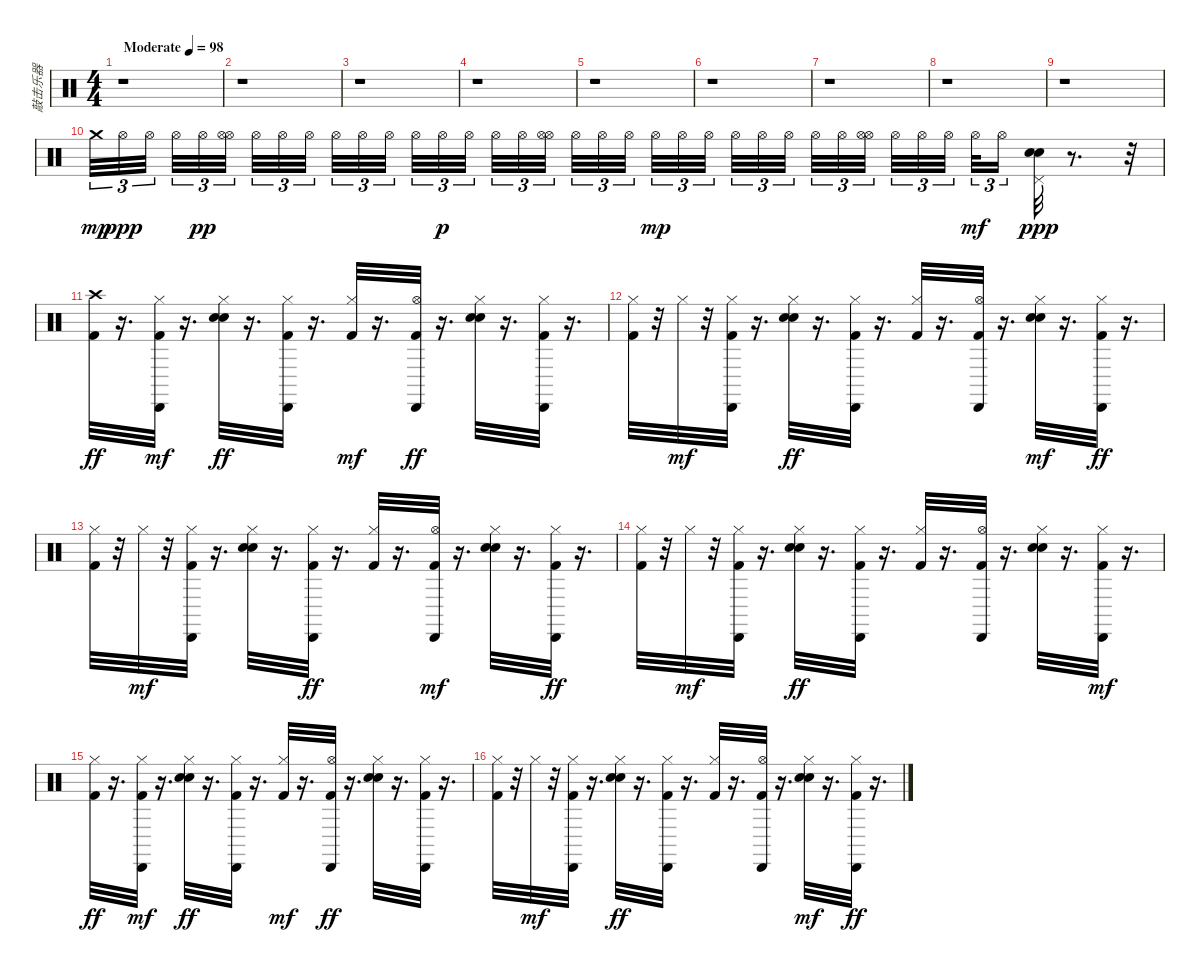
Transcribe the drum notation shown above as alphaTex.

\track ("敲击乐器" "敲击乐器") {instrument percussion}
\staff {score}
\articulation defaults
\ts (4 4)
\tempo (98 "Moderate")
\clef neutral
\ks c
r.1{dy mp} |
r.1 |
r.1 |
r.1 |
r.1 |
r.1 |
r.1 |
r.1 |
r.1 |
"Crash medium (hit)".32{tu (3 2)} "Hi-Hat (open)".32{tu (3 2) dy ppp} "Hi-Hat (open)".32{tu (3 2) beam splitsecondary} "Hi-Hat (open)".32{tu (3 2)} "Hi-Hat (open)".32{tu (3 2) dy pp} ("Hi-Hat (open)" "Hi-Hat (open)").32{tu (3 2) beam splitsecondary} "Hi-Hat (open)".32{tu (3 2)} "Hi-Hat (open)".32{tu (3 2)} "Hi-Hat (open)".32{tu (3 2) beam splitsecondary} "Hi-Hat (open)".32{tu (3 2)} "Hi-Hat (open)".32{tu (3 2)} "Hi-Hat (open)".32{tu (3 2)} "Hi-Hat (open)".32{tu (3 2)} "Hi-Hat (open)".32{tu (3 2) dy p} "Hi-Hat (open)".32{tu (3 2) beam splitsecondary} "Hi-Hat (open)".32{tu (3 2)} "Hi-Hat (open)".32{tu (3 2)} ("Hi-Hat (open)" "Hi-Hat (open)").32{tu (3 2) beam splitsecondary} "Hi-Hat (open)".32{tu (3 2)} "Hi-Hat (open)".32{tu (3 2)} "Hi-Hat (open)".32{tu (3 2) beam splitsecondary} "Hi-Hat (open)".32{tu (3 2) dy mp} "Hi-Hat (open)".32{tu (3 2)} "Hi-Hat (open)".32{tu (3 2)} "Hi-Hat (open)".32{tu (3 2)} "Hi-Hat (open)".32{tu (3 2)} "Hi-Hat (open)".32{tu (3 2) beam splitsecondary} "Hi-Hat (open)".32{tu (3 2)} "Hi-Hat (open)".32{tu (3 2)} ("Hi-Hat (open)" "Hi-Hat (open)").32{tu (3 2) beam splitsecondary} "Hi-Hat (open)".32{tu (3 2)} "Hi-Hat (open)".32{tu (3 2)} "Hi-Hat (open)".32{tu (3 2) beam splitsecondary} "Hi-Hat (open)".32{tu (3 2) dy mf} "Hi-Hat (open)".16{tu (3 2)} ("Snare (hit) 2" "Pedal Hi-Hat (hit)" "Hand Clap (hit)").32{dy ppp} r.8{d} r.32 |
("Crash high (hit)" "Kick (hit) 2").32{dy ff} r.16{d} ("Cabasa (hit)" "Hi-Hat (closed)" "Kick (hit) 2").32{dy mf} r.16{d} ("Hi-Hat (closed)" "Snare (hit) 2" "Hand Clap (hit)").32{dy ff} r.16{d} ("Cabasa (hit)" "Kick (hit) 2" "Hi-Hat (closed)").32 r.16{d} ("Kick (hit) 2" "Hi-Hat (closed)").32{dy mf} r.16{d} ("Cabasa (hit)" "Kick (hit) 2" "Hi-Hat (open)").32{dy ff} r.16{d} ("Hi-Hat (closed)" "Snare (hit) 2" "Hand Clap (hit)").32 r.16{d} ("Cabasa (hit)" "Hi-Hat (closed)" "Kick (hit) 2").32 r.16{d} |
("Kick (hit) 2" "Hi-Hat (closed)").32 r.32 "Hi-Hat (closed)".32{dy mf} r.32 ("Cabasa (hit)" "Kick (hit) 2" "Hi-Hat (closed)").32 r.16{d} ("Hi-Hat (closed)" "Hand Clap (hit)" "Snare (hit) 2").32{dy ff} r.16{d} ("Cabasa (hit)" "Hi-Hat (closed)" "Kick (hit) 2").32 r.16{d} ("Kick (hit) 2" "Hi-Hat (closed)").32 r.16{d} ("Cabasa (hit)" "Kick (hit) 2" "Hi-Hat (open)").32 r.16{d} ("Snare (hit) 2" "Hand Clap (hit)" "Hi-Hat (closed)").32{dy mf} r.16{d} ("Kick (hit) 2" "Cabasa (hit)" "Hi-Hat (closed)").32{dy ff} r.16{d} |
("Kick (hit) 2" "Hi-Hat (closed)").32 r.32 "Hi-Hat (closed)".32{dy mf} r.32 ("Kick (hit) 2" "Hi-Hat (closed)" "Cabasa (hit)").32 r.16{d} ("Hand Clap (hit)" "Snare (hit) 2" "Hi-Hat (closed)").32 r.16{d} ("Hi-Hat (closed)" "Cabasa (hit)" "Kick (hit) 2").32{dy ff} r.16{d} ("Kick (hit) 2" "Hi-Hat (closed)").32 r.16{d} ("Hi-Hat (open)" "Kick (hit) 2" "Cabasa (hit)").32{dy mf} r.16{d} ("Hand Clap (hit)" "Snare (hit) 2" "Hi-Hat (closed)").32 r.16{d} ("Cabasa (hit)" "Kick (hit) 2" "Hi-Hat (closed)").32{dy ff} r.16{d} |
("Kick (hit) 2" "Hi-Hat (closed)").32 r.32 "Hi-Hat (closed)".32{dy mf} r.32 ("Cabasa (hit)" "Kick (hit) 2" "Hi-Hat (closed)").32 r.16{d} ("Hi-Hat (closed)" "Hand Clap (hit)" "Snare (hit) 2").32{dy ff} r.16{d} ("Cabasa (hit)" "Hi-Hat (closed)" "Kick (hit) 2").32 r.16{d} ("Kick (hit) 2" "Hi-Hat (closed)").32 r.16{d} ("Kick (hit) 2" "Cabasa (hit)" "Hi-Hat (open)").32 r.16{d} ("Hi-Hat (closed)" "Hand Clap (hit)" "Snare (hit) 2").32 r.16{d} ("Kick (hit) 2" "Hi-Hat (closed)" "Cabasa (hit)").32{dy mf} r.16{d} |
("Hi-Hat (closed)" "Kick (hit) 2").32{dy ff} r.16{d} ("Cabasa (hit)" "Hi-Hat (closed)" "Kick (hit) 2").32{dy mf} r.16{d} ("Hi-Hat (closed)" "Snare (hit) 2" "Hand Clap (hit)").32{dy ff} r.16{d} ("Cabasa (hit)" "Kick (hit) 2" "Hi-Hat (closed)").32 r.16{d} ("Kick (hit) 2" "Hi-Hat (closed)").32{dy mf} r.16{d} ("Cabasa (hit)" "Kick (hit) 2" "Hi-Hat (open)").32{dy ff} r.16{d} ("Hi-Hat (closed)" "Snare (hit) 2" "Hand Clap (hit)").32 r.16{d} ("Cabasa (hit)" "Hi-Hat (closed)" "Kick (hit) 2").32 r.16{d} |
("Kick (hit) 2" "Hi-Hat (closed)").32 r.32 "Hi-Hat (closed)".32{dy mf} r.32 ("Cabasa (hit)" "Kick (hit) 2" "Hi-Hat (closed)").32 r.16{d} ("Hi-Hat (closed)" "Hand Clap (hit)" "Snare (hit) 2").32{dy ff} r.16{d} ("Cabasa (hit)" "Hi-Hat (closed)" "Kick (hit) 2").32 r.16{d} ("Kick (hit) 2" "Hi-Hat (closed)").32 r.16{d} ("Cabasa (hit)" "Kick (hit) 2" "Hi-Hat (open)").32 r.16{d} ("Snare (hit) 2" "Hand Clap (hit)" "Hi-Hat (closed)").32{dy mf} r.16{d} ("Kick (hit) 2" "Cabasa (hit)" "Hi-Hat (closed)").32{dy ff} r.16{d}
